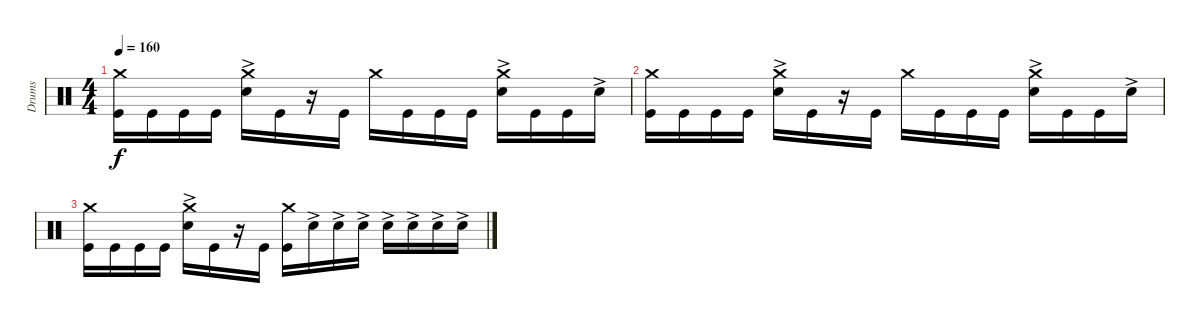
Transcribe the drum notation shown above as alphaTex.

\track ("Drums" "Drums") {instrument percussion}
\staff {score}
\articulation defaults
\ts (4 4)
\tempo 160
\clef neutral
\ks c
("Crash medium (hit)" "Kick (hit)").16{dy f} "Kick (hit)".16 "Kick (hit)".16 "Kick (hit)".16 ("Crash medium (hit)" "Snare (hit) 2"{ac}).16 "Kick (hit)".16 r.16 "Kick (hit)".16 "Crash medium (hit)".16 "Kick (hit)".16 "Kick (hit)".16 "Kick (hit)".16 ("Crash medium (hit)" "Snare (hit) 2"{ac}).16 "Kick (hit)".16 "Kick (hit)".16 "Snare (hit) 2"{ac}.16 |
("Crash medium (hit)" "Kick (hit)").16 "Kick (hit)".16 "Kick (hit)".16 "Kick (hit)".16 ("Crash medium (hit)" "Snare (hit) 2"{ac}).16 "Kick (hit)".16 r.16 "Kick (hit)".16 "Crash medium (hit)".16 "Kick (hit)".16 "Kick (hit)".16 "Kick (hit)".16 ("Crash medium (hit)" "Snare (hit) 2"{ac}).16 "Kick (hit)".16 "Kick (hit)".16 "Snare (hit) 2"{ac}.16 |
("Crash medium (hit)" "Kick (hit)").16 "Kick (hit)".16 "Kick (hit)".16 "Kick (hit)".16 ("Crash medium (hit)" "Snare (hit) 2"{ac}).16 "Kick (hit)".16 r.16 "Kick (hit)".16 ("Kick (hit)" "Crash medium (hit)").16 "Snare (hit) 2"{ac}.16 "Snare (hit) 2"{ac}.16 "Snare (hit) 2"{ac}.16 "Snare (hit) 2"{ac}.16 "Snare (hit) 2"{ac}.16 "Snare (hit) 2"{ac}.16 "Snare (hit) 2"{ac}.16
